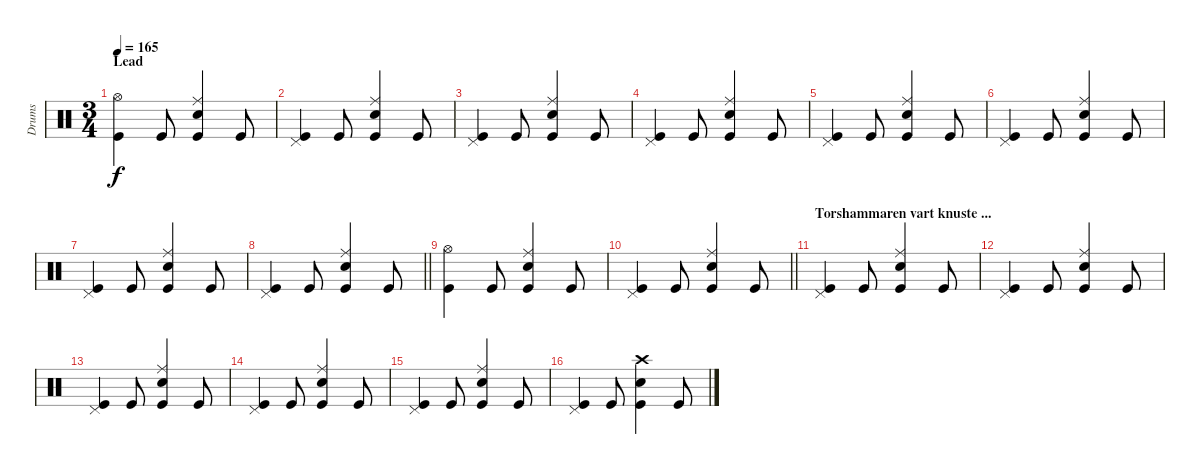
\track ("Drums" "Drums") {instrument percussion}
\staff {score}
\articulation defaults
\ts (3 4)
\section ("" "Lead")
\tempo 165
\clef neutral
\ks c
("Hi-Hat (open)" "Kick (hit)").4{dy f} "Kick (hit)".8 ("Ride (middle)" "Snare (hit) 2" "Kick (hit)").4 "Kick (hit)".8 |
("Pedal Hi-Hat (hit)" "Kick (hit)").4 "Kick (hit)".8 ("Ride (middle)" "Snare (hit) 2" "Kick (hit)").4 "Kick (hit)".8 |
("Pedal Hi-Hat (hit)" "Kick (hit)").4 "Kick (hit)".8 ("Ride (middle)" "Snare (hit) 2" "Kick (hit)").4 "Kick (hit)".8 |
("Pedal Hi-Hat (hit)" "Kick (hit)").4 "Kick (hit)".8 ("Ride (middle)" "Snare (hit) 2" "Kick (hit)").4 "Kick (hit)".8 |
("Pedal Hi-Hat (hit)" "Kick (hit)").4 "Kick (hit)".8 ("Ride (middle)" "Snare (hit) 2" "Kick (hit)").4 "Kick (hit)".8 |
("Pedal Hi-Hat (hit)" "Kick (hit)").4 "Kick (hit)".8 ("Ride (middle)" "Snare (hit) 2" "Kick (hit)").4 "Kick (hit)".8 |
("Pedal Hi-Hat (hit)" "Kick (hit)").4 "Kick (hit)".8 ("Ride (middle)" "Snare (hit) 2" "Kick (hit)").4 "Kick (hit)".8 |
\barLineRight lightlight
("Pedal Hi-Hat (hit)" "Kick (hit)").4 "Kick (hit)".8 ("Ride (middle)" "Snare (hit) 2" "Kick (hit)").4 "Kick (hit)".8 |
\section ("" "")
("Hi-Hat (open)" "Kick (hit)").4 "Kick (hit)".8 ("Ride (middle)" "Snare (hit) 2" "Kick (hit)").4 "Kick (hit)".8 |
\barLineRight lightlight
("Pedal Hi-Hat (hit)" "Kick (hit)").4 "Kick (hit)".8 ("Ride (middle)" "Snare (hit) 2" "Kick (hit)").4 "Kick (hit)".8 |
\section ("" "Torshammaren vart knuste ...")
("Pedal Hi-Hat (hit)" "Kick (hit)").4 "Kick (hit)".8 ("Ride (middle)" "Snare (hit) 2" "Kick (hit)").4 "Kick (hit)".8 |
("Pedal Hi-Hat (hit)" "Kick (hit)").4 "Kick (hit)".8 ("Ride (middle)" "Snare (hit) 2" "Kick (hit)").4 "Kick (hit)".8 |
("Pedal Hi-Hat (hit)" "Kick (hit)").4 "Kick (hit)".8 ("Ride (middle)" "Snare (hit) 2" "Kick (hit)").4 "Kick (hit)".8 |
("Pedal Hi-Hat (hit)" "Kick (hit)").4 "Kick (hit)".8 ("Ride (middle)" "Snare (hit) 2" "Kick (hit)").4 "Kick (hit)".8 |
("Pedal Hi-Hat (hit)" "Kick (hit)").4 "Kick (hit)".8 ("Ride (middle)" "Snare (hit) 2" "Kick (hit)").4 "Kick (hit)".8 |
("Pedal Hi-Hat (hit)" "Kick (hit)").4 "Kick (hit)".8 ("Crash high (hit)" "Snare (hit) 2" "Kick (hit)").4 "Kick (hit)".8
